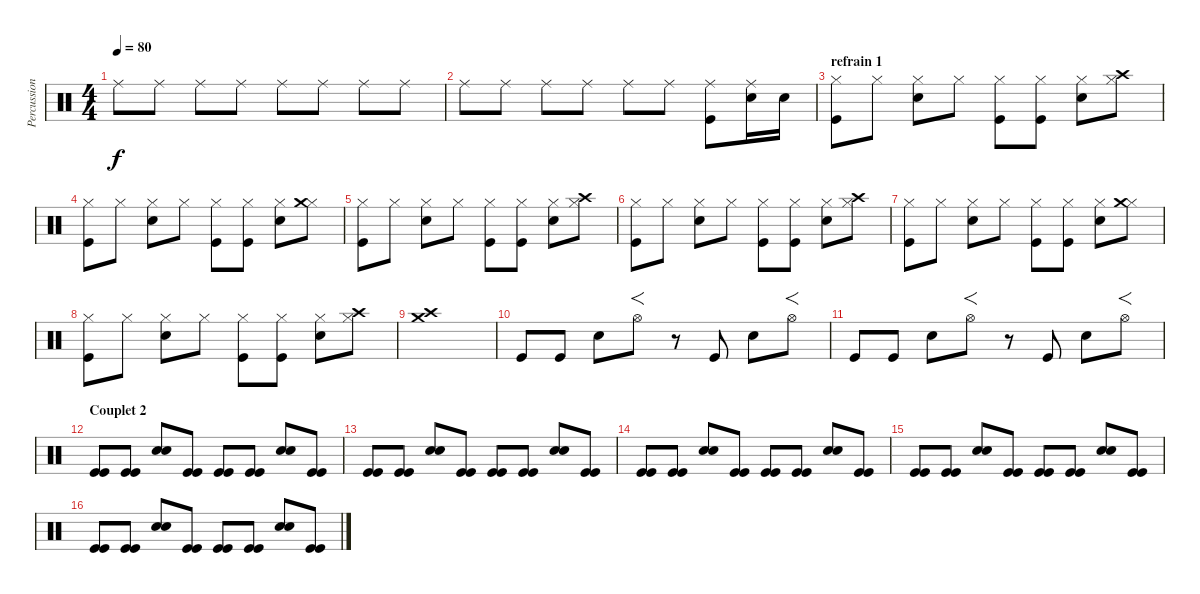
\track ("Percussions" "Percussion") {instrument percussion}
\staff {score}
\articulation defaults
\ts (4 4)
\tempo 80
\clef neutral
\ks c "Ride (middle)".8{dy f} "Ride (middle)".8 "Ride (middle)".8 "Ride (middle)".8 "Ride (middle)".8 "Ride (middle)".8 "Ride (middle)".8 "Ride (middle)".8
|
"Ride (middle)".8 "Ride (middle)".8 "Ride (middle)".8 "Ride (middle)".8 "Ride (middle)".8 "Ride (middle)".8 ("Ride (middle)" "Kick (hit)").8 ("Ride (middle)" "Electric Snare (hit)").16{volume 13} "Electric Snare (hit)".16 |
\section ("" "refrain 1")
("Hi-Hat (closed)" "Kick (hit)").8{volume 16} "Hi-Hat (closed)".8 ("Hi-Hat (closed)" "Electric Snare (hit)").8 "Hi-Hat (closed)".8 ("Hi-Hat (closed)" "Kick (hit)").8 ("Hi-Hat (closed)" "Kick (hit)").8 ("Hi-Hat (closed)" "Electric Snare (hit)").8 ("Hi-Hat (closed)" "Crash high (hit)").8 |
("Hi-Hat (closed)" "Kick (hit)").8{volume 16} "Hi-Hat (closed)".8 ("Hi-Hat (closed)" "Electric Snare (hit)").8 "Hi-Hat (closed)".8 ("Hi-Hat (closed)" "Kick (hit)").8 ("Hi-Hat (closed)" "Kick (hit)").8 ("Hi-Hat (closed)" "Electric Snare (hit)").8 ("Hi-Hat (closed)" "Crash medium (hit)").8 |
("Hi-Hat (closed)" "Kick (hit)").8{volume 16} "Hi-Hat (closed)".8 ("Hi-Hat (closed)" "Electric Snare (hit)").8 "Hi-Hat (closed)".8 ("Hi-Hat (closed)" "Kick (hit)").8 ("Hi-Hat (closed)" "Kick (hit)").8 ("Hi-Hat (closed)" "Electric Snare (hit)").8 ("Hi-Hat (closed)" "Crash high (hit)").8 |
("Hi-Hat (closed)" "Kick (hit)").8{volume 16} "Hi-Hat (closed)".8 ("Hi-Hat (closed)" "Electric Snare (hit)").8 "Hi-Hat (closed)".8 ("Hi-Hat (closed)" "Kick (hit)").8 ("Hi-Hat (closed)" "Kick (hit)").8 ("Hi-Hat (closed)" "Electric Snare (hit)").8 ("Hi-Hat (closed)" "Crash high (hit)").8 |
("Hi-Hat (closed)" "Kick (hit)").8{volume 16} "Hi-Hat (closed)".8 ("Hi-Hat (closed)" "Electric Snare (hit)").8 "Hi-Hat (closed)".8 ("Hi-Hat (closed)" "Kick (hit)").8 ("Hi-Hat (closed)" "Kick (hit)").8 ("Hi-Hat (closed)" "Electric Snare (hit)").8 ("Hi-Hat (closed)" "Crash medium (hit)").8 |
("Hi-Hat (closed)" "Kick (hit)").8{volume 16} "Hi-Hat (closed)".8 ("Hi-Hat (closed)" "Electric Snare (hit)").8 "Hi-Hat (closed)".8 ("Hi-Hat (closed)" "Kick (hit)").8 ("Hi-Hat (closed)" "Kick (hit)").8 ("Hi-Hat (closed)" "Electric Snare (hit)").8 ("Hi-Hat (closed)" "Crash high (hit)").8 |
("Crash high (hit)" "Crash medium (hit)").1{volume 9} |
"Kick (hit)".8 "Kick (hit)".8 "Electric Snare (hit)".8 "Hi-Hat (open)".8{f} r.8 "Kick (hit)".8 "Electric Snare (hit)".8 "Hi-Hat (open)".8{f} |
"Kick (hit)".8 "Kick (hit)".8 "Electric Snare (hit)".8 "Hi-Hat (open)".8{f} r.8 "Kick (hit)".8 "Electric Snare (hit)".8 "Hi-Hat (open)".8{f} |
\section ("" "Couplet 2")
("Kick (hit)" "Kick (hit)").8 ("Kick (hit)" "Kick (hit)").8 ("Snare (hit) 2" "Electric Snare (hit)").8{bd 240} ("Kick (hit)" "Kick (hit)").8 ("Kick (hit)" "Kick (hit)").8 ("Kick (hit)" "Kick (hit)").8 ("Snare (hit) 2" "Electric Snare (hit)").8{bd 240} ("Kick (hit)" "Kick (hit)").8 |
("Kick (hit)" "Kick (hit)").8 ("Kick (hit)" "Kick (hit)").8 ("Snare (hit) 2" "Electric Snare (hit)").8{bd 240} ("Kick (hit)" "Kick (hit)").8 ("Kick (hit)" "Kick (hit)").8 ("Kick (hit)" "Kick (hit)").8 ("Snare (hit) 2" "Electric Snare (hit)").8{bd 240} ("Kick (hit)" "Kick (hit)").8 |
("Kick (hit)" "Kick (hit)").8 ("Kick (hit)" "Kick (hit)").8 ("Snare (hit) 2" "Electric Snare (hit)").8{bd 240} ("Kick (hit)" "Kick (hit)").8 ("Kick (hit)" "Kick (hit)").8 ("Kick (hit)" "Kick (hit)").8 ("Snare (hit) 2" "Electric Snare (hit)").8{bd 240} ("Kick (hit)" "Kick (hit)").8 |
("Kick (hit)" "Kick (hit)").8 ("Kick (hit)" "Kick (hit)").8 ("Snare (hit) 2" "Electric Snare (hit)").8{bd 240} ("Kick (hit)" "Kick (hit)").8 ("Kick (hit)" "Kick (hit)").8 ("Kick (hit)" "Kick (hit)").8 ("Snare (hit) 2" "Electric Snare (hit)").8{bd 240} ("Kick (hit)" "Kick (hit)").8 |
("Kick (hit)" "Kick (hit)").8 ("Kick (hit)" "Kick (hit)").8 ("Snare (hit) 2" "Electric Snare (hit)").8{bd 240} ("Kick (hit)" "Kick (hit)").8 ("Kick (hit)" "Kick (hit)").8 ("Kick (hit)" "Kick (hit)").8 ("Snare (hit) 2" "Electric Snare (hit)").8{bd 240} ("Kick (hit)" "Kick (hit)").8
